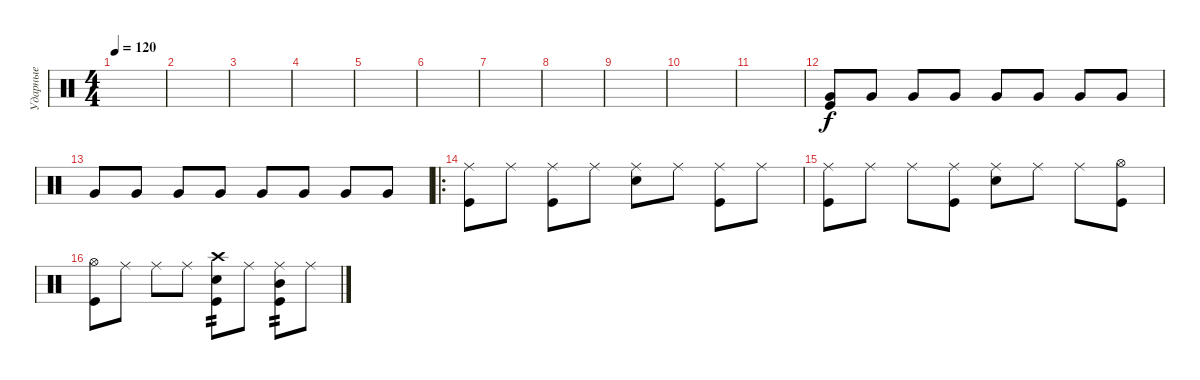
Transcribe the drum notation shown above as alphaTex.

\track ("Ударные" "Ударные") {instrument percussion}
\staff {score}
\articulation defaults
\ts (4 4)
\tempo 120
\clef neutral
\ks c
|
|
|
|
|
|
|
|
|
|
|
("Kick (hit)" "Very Low Tom (hit)").8{volume 13} "Very Low Tom (hit)".8 "Very Low Tom (hit)".8 "Very Low Tom (hit)".8 "Very Low Tom (hit)".8 "Very Low Tom (hit)".8 "Very Low Tom (hit)".8 "Very Low Tom (hit)".8 |
"Very Low Tom (hit)".8 "Very Low Tom (hit)".8 "Very Low Tom (hit)".8 "Very Low Tom (hit)".8 "Very Low Tom (hit)".8 "Very Low Tom (hit)".8 "Very Low Tom (hit)".8 "Very Low Tom (hit)".8 |
\ro
("Ride (middle)" "Kick (hit)").8{volume 8} "Ride (middle)".8 ("Ride (middle)" "Kick (hit)").8 "Ride (middle)".8 ("Ride (middle)" "Snare (hit) 2").8 "Ride (middle)".8 ("Ride (middle)" "Kick (hit)").8 "Ride (middle)".8 |
("Ride (middle)" "Kick (hit)").8 "Ride (middle)".8 "Ride (middle)".8 ("Ride (middle)" "Kick (hit)").8 ("Ride (middle)" "Snare (hit) 2").8 "Ride (middle)".8 "Ride (middle)".8 ("Hi-Hat (open)" "Kick (hit)").8 |
("Hi-Hat (open)" "Kick (hit)").8 "Ride (middle)".8 "Ride (middle)".8 "Ride (middle)".8 ("Crash high (hit)" "Kick (hit)" "Snare (hit) 2").8{tp 2} "Ride (middle)".8 ("Ride (middle)" "Kick (hit)" "Mid Tom (hit)").8{tp 2} "Ride (middle)".8
